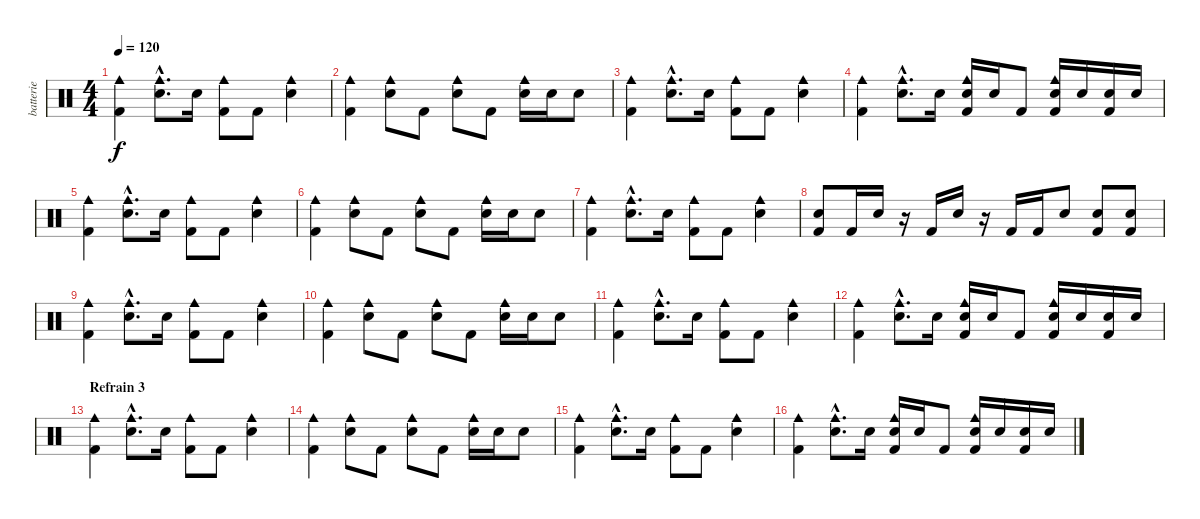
\track ("batterie" "batterie") {instrument percussion}
\staff {score}
\articulation defaults
\ts (4 4)
\tempo 120
\clef neutral
\ks c
("Kick (hit) 2" "Cowbell medium (hit)").4{dy f} ("Electric Snare (hit)"{hac} "Cowbell medium (hit)"{hac}).8{d} "Electric Snare (hit)".16 ("Kick (hit) 2" "Cowbell medium (hit)").8 "Kick (hit) 2".8 ("Electric Snare (hit)" "Cowbell medium (hit)").4 |
("Kick (hit) 2" "Cowbell medium (hit)").4 ("Electric Snare (hit)" "Cowbell medium (hit)").8 "Kick (hit) 2".8 ("Electric Snare (hit)" "Cowbell medium (hit)").8 "Kick (hit) 2".8 ("Electric Snare (hit)" "Cowbell medium (hit)").16 "Electric Snare (hit)".16 "Electric Snare (hit)".8 |
("Kick (hit) 2" "Cowbell medium (hit)").4 ("Electric Snare (hit)"{hac} "Cowbell medium (hit)"{hac}).8{d} "Electric Snare (hit)".16 ("Kick (hit) 2" "Cowbell medium (hit)").8 "Kick (hit) 2".8 ("Electric Snare (hit)" "Cowbell medium (hit)").4 |
("Kick (hit) 2" "Cowbell medium (hit)").4 ("Electric Snare (hit)"{hac} "Cowbell medium (hit)"{hac}).8{d} "Electric Snare (hit)".16 ("Kick (hit) 2" "Electric Snare (hit)" "Cowbell medium (hit)").16 "Electric Snare (hit)".16 "Kick (hit) 2".8 ("Kick (hit) 2" "Electric Snare (hit)" "Cowbell medium (hit)").16 "Electric Snare (hit)".16 ("Kick (hit) 2" "Electric Snare (hit)").16 "Electric Snare (hit)".16 |
("Kick (hit) 2" "Cowbell medium (hit)").4 ("Electric Snare (hit)"{hac} "Cowbell medium (hit)"{hac}).8{d} "Electric Snare (hit)".16 ("Kick (hit) 2" "Cowbell medium (hit)").8 "Kick (hit) 2".8 ("Electric Snare (hit)" "Cowbell medium (hit)").4 |
("Kick (hit) 2" "Cowbell medium (hit)").4 ("Electric Snare (hit)" "Cowbell medium (hit)").8 "Kick (hit) 2".8 ("Electric Snare (hit)" "Cowbell medium (hit)").8 "Kick (hit) 2".8 ("Electric Snare (hit)" "Cowbell medium (hit)").16 "Electric Snare (hit)".16 "Electric Snare (hit)".8 |
("Kick (hit) 2" "Cowbell medium (hit)").4 ("Electric Snare (hit)"{hac} "Cowbell medium (hit)"{hac}).8{d} "Electric Snare (hit)".16 ("Kick (hit) 2" "Cowbell medium (hit)").8 "Kick (hit) 2".8 ("Electric Snare (hit)" "Cowbell medium (hit)").4 |
("Kick (hit) 2" "Electric Snare (hit)").8 "Kick (hit) 2".16 "Electric Snare (hit)".16 r.16 "Kick (hit) 2".16 "Electric Snare (hit)".16 r.16 "Kick (hit) 2".16 "Kick (hit) 2".16 "Electric Snare (hit)".8 ("Kick (hit) 2" "Electric Snare (hit)").8 ("Kick (hit) 2" "Electric Snare (hit)").8 |
("Kick (hit) 2" "Cowbell medium (hit)").4 ("Electric Snare (hit)"{hac} "Cowbell medium (hit)"{hac}).8{d} "Electric Snare (hit)".16 ("Kick (hit) 2" "Cowbell medium (hit)").8 "Kick (hit) 2".8 ("Electric Snare (hit)" "Cowbell medium (hit)").4 |
("Kick (hit) 2" "Cowbell medium (hit)").4 ("Electric Snare (hit)" "Cowbell medium (hit)").8 "Kick (hit) 2".8 ("Electric Snare (hit)" "Cowbell medium (hit)").8 "Kick (hit) 2".8 ("Electric Snare (hit)" "Cowbell medium (hit)").16 "Electric Snare (hit)".16 "Electric Snare (hit)".8 |
("Kick (hit) 2" "Cowbell medium (hit)").4 ("Electric Snare (hit)"{hac} "Cowbell medium (hit)"{hac}).8{d} "Electric Snare (hit)".16 ("Kick (hit) 2" "Cowbell medium (hit)").8 "Kick (hit) 2".8 ("Electric Snare (hit)" "Cowbell medium (hit)").4 |
("Kick (hit) 2" "Cowbell medium (hit)").4 ("Electric Snare (hit)"{hac} "Cowbell medium (hit)"{hac}).8{d} "Electric Snare (hit)".16 ("Kick (hit) 2" "Electric Snare (hit)" "Cowbell medium (hit)").16 "Electric Snare (hit)".16 "Kick (hit) 2".8 ("Kick (hit) 2" "Electric Snare (hit)" "Cowbell medium (hit)").16 "Electric Snare (hit)".16 ("Kick (hit) 2" "Electric Snare (hit)").16 "Electric Snare (hit)".16 |
\section ("" "Refrain 3")
("Kick (hit) 2" "Cowbell medium (hit)").4 ("Electric Snare (hit)"{hac} "Cowbell medium (hit)"{hac}).8{d} "Electric Snare (hit)".16 ("Kick (hit) 2" "Cowbell medium (hit)").8 "Kick (hit) 2".8 ("Electric Snare (hit)" "Cowbell medium (hit)").4 |
("Kick (hit) 2" "Cowbell medium (hit)").4 ("Electric Snare (hit)" "Cowbell medium (hit)").8 "Kick (hit) 2".8 ("Electric Snare (hit)" "Cowbell medium (hit)").8 "Kick (hit) 2".8 ("Electric Snare (hit)" "Cowbell medium (hit)").16 "Electric Snare (hit)".16 "Electric Snare (hit)".8 |
("Kick (hit) 2" "Cowbell medium (hit)").4 ("Electric Snare (hit)"{hac} "Cowbell medium (hit)"{hac}).8{d} "Electric Snare (hit)".16 ("Kick (hit) 2" "Cowbell medium (hit)").8 "Kick (hit) 2".8 ("Electric Snare (hit)" "Cowbell medium (hit)").4 |
("Kick (hit) 2" "Cowbell medium (hit)").4 ("Electric Snare (hit)"{hac} "Cowbell medium (hit)"{hac}).8{d} "Electric Snare (hit)".16 ("Kick (hit) 2" "Electric Snare (hit)" "Cowbell medium (hit)").16 "Electric Snare (hit)".16 "Kick (hit) 2".8 ("Kick (hit) 2" "Electric Snare (hit)" "Cowbell medium (hit)").16 "Electric Snare (hit)".16 ("Kick (hit) 2" "Electric Snare (hit)").16 "Electric Snare (hit)".16
